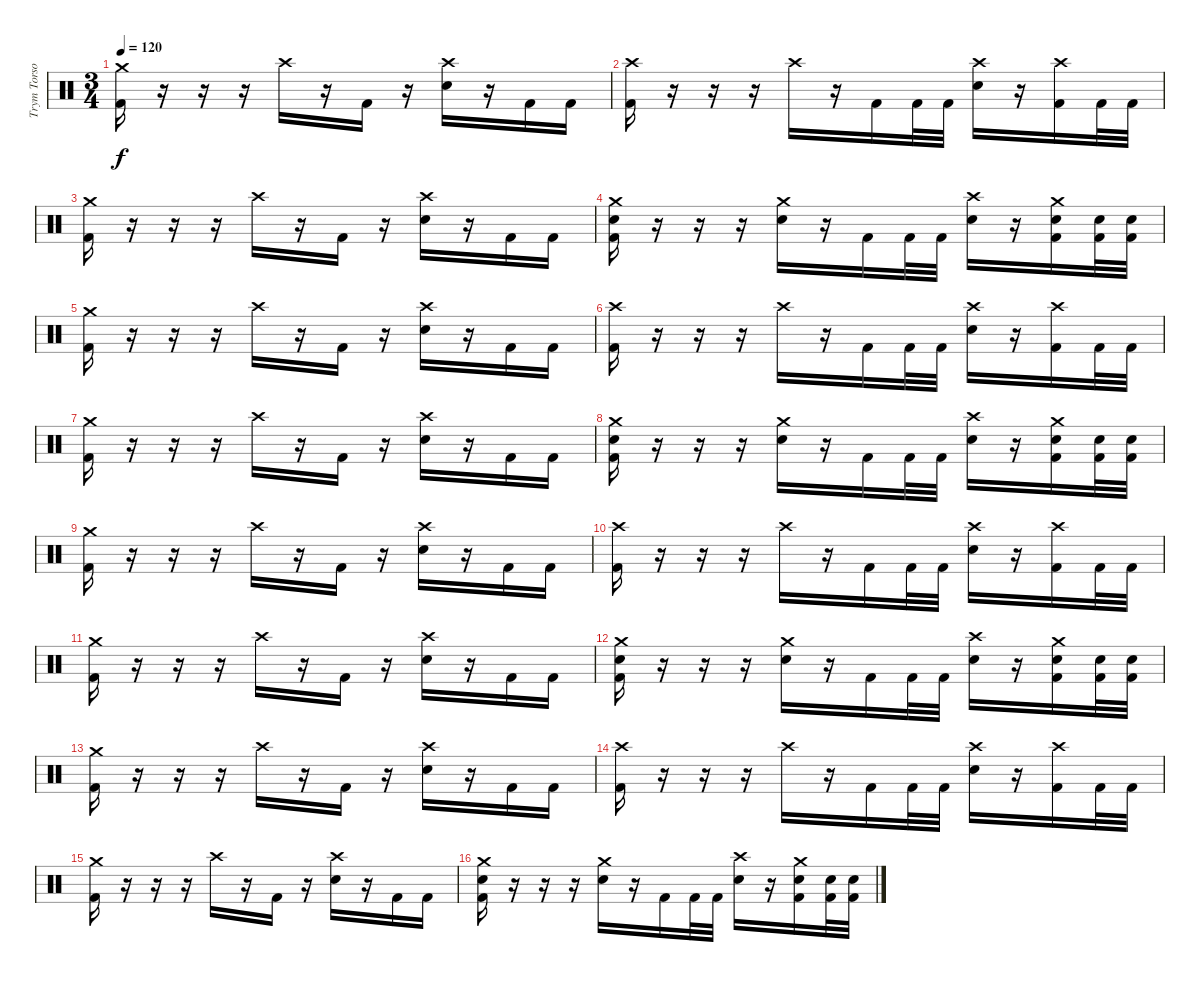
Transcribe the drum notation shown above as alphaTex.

\track ("Trym Torson" "Trym Torso") {instrument percussion}
\staff {score}
\articulation defaults
\ts (3 4)
\tempo 120
\clef neutral
\ks c
("Crash medium (hit)" "Kick (hit) 2").16{dy f} r.16 r.16 r.16 "Crash high (hit)".16 r.16 "Kick (hit) 2".16 r.16 ("Crash high (hit)" "Snare (hit) 2").16 r.16 "Kick (hit) 2".16 "Kick (hit) 2".16 |
("Crash high (hit)" "Kick (hit) 2").16 r.16 r.16 r.16 "Crash high (hit)".16 r.16 "Kick (hit) 2".16 "Kick (hit) 2".32 "Kick (hit) 2".32 ("Crash high (hit)" "Snare (hit) 2").16 r.16 ("Crash high (hit)" "Kick (hit) 2").16 "Kick (hit) 2".32 "Kick (hit) 2".32 |
("Crash medium (hit)" "Kick (hit) 2").16 r.16 r.16 r.16 "Crash high (hit)".16 r.16 "Kick (hit) 2".16 r.16 ("Crash high (hit)" "Snare (hit) 2").16 r.16 "Kick (hit) 2".16 "Kick (hit) 2".16 |
("Crash medium (hit)" "Snare (hit) 2" "Kick (hit) 2").16 r.16 r.16 r.16 ("Crash medium (hit)" "Snare (hit) 2").16 r.16 "Kick (hit) 2".16 "Kick (hit) 2".32 "Kick (hit) 2".32 ("Crash high (hit)" "Snare (hit) 2").16 r.16 ("Crash medium (hit)" "Snare (hit) 2" "Kick (hit) 2").16 ("Snare (hit) 2" "Kick (hit) 2").32 ("Snare (hit) 2" "Kick (hit) 2").32 |
("Crash medium (hit)" "Kick (hit) 2").16 r.16 r.16 r.16 "Crash high (hit)".16 r.16 "Kick (hit) 2".16 r.16 ("Crash high (hit)" "Snare (hit) 2").16 r.16 "Kick (hit) 2".16 "Kick (hit) 2".16 |
("Crash high (hit)" "Kick (hit) 2").16 r.16 r.16 r.16 "Crash high (hit)".16 r.16 "Kick (hit) 2".16 "Kick (hit) 2".32 "Kick (hit) 2".32 ("Crash high (hit)" "Snare (hit) 2").16 r.16 ("Crash high (hit)" "Kick (hit) 2").16 "Kick (hit) 2".32 "Kick (hit) 2".32 |
("Crash medium (hit)" "Kick (hit) 2").16 r.16 r.16 r.16 "Crash high (hit)".16 r.16 "Kick (hit) 2".16 r.16 ("Crash high (hit)" "Snare (hit) 2").16 r.16 "Kick (hit) 2".16 "Kick (hit) 2".16 |
("Crash medium (hit)" "Snare (hit) 2" "Kick (hit) 2").16 r.16 r.16 r.16 ("Crash medium (hit)" "Snare (hit) 2").16 r.16 "Kick (hit) 2".16 "Kick (hit) 2".32 "Kick (hit) 2".32 ("Crash high (hit)" "Snare (hit) 2").16 r.16 ("Crash medium (hit)" "Snare (hit) 2" "Kick (hit) 2").16 ("Snare (hit) 2" "Kick (hit) 2").32 ("Snare (hit) 2" "Kick (hit) 2").32 |
("Crash medium (hit)" "Kick (hit) 2").16 r.16 r.16 r.16 "Crash high (hit)".16 r.16 "Kick (hit) 2".16 r.16 ("Crash high (hit)" "Snare (hit) 2").16 r.16 "Kick (hit) 2".16 "Kick (hit) 2".16 |
("Crash high (hit)" "Kick (hit) 2").16 r.16 r.16 r.16 "Crash high (hit)".16 r.16 "Kick (hit) 2".16 "Kick (hit) 2".32 "Kick (hit) 2".32 ("Crash high (hit)" "Snare (hit) 2").16 r.16 ("Crash high (hit)" "Kick (hit) 2").16 "Kick (hit) 2".32 "Kick (hit) 2".32 |
("Crash medium (hit)" "Kick (hit) 2").16 r.16 r.16 r.16 "Crash high (hit)".16 r.16 "Kick (hit) 2".16 r.16 ("Crash high (hit)" "Snare (hit) 2").16 r.16 "Kick (hit) 2".16 "Kick (hit) 2".16 |
("Crash medium (hit)" "Snare (hit) 2" "Kick (hit) 2").16 r.16 r.16 r.16 ("Crash medium (hit)" "Snare (hit) 2").16 r.16 "Kick (hit) 2".16 "Kick (hit) 2".32 "Kick (hit) 2".32 ("Crash high (hit)" "Snare (hit) 2").16 r.16 ("Crash medium (hit)" "Snare (hit) 2" "Kick (hit) 2").16 ("Snare (hit) 2" "Kick (hit) 2").32 ("Snare (hit) 2" "Kick (hit) 2").32 |
("Crash medium (hit)" "Kick (hit) 2").16 r.16 r.16 r.16 "Crash high (hit)".16 r.16 "Kick (hit) 2".16 r.16 ("Crash high (hit)" "Snare (hit) 2").16 r.16 "Kick (hit) 2".16 "Kick (hit) 2".16 |
("Crash high (hit)" "Kick (hit) 2").16 r.16 r.16 r.16 "Crash high (hit)".16 r.16 "Kick (hit) 2".16 "Kick (hit) 2".32 "Kick (hit) 2".32 ("Crash high (hit)" "Snare (hit) 2").16 r.16 ("Crash high (hit)" "Kick (hit) 2").16 "Kick (hit) 2".32 "Kick (hit) 2".32 |
("Crash medium (hit)" "Kick (hit) 2").16 r.16 r.16 r.16 "Crash high (hit)".16 r.16 "Kick (hit) 2".16 r.16 ("Crash high (hit)" "Snare (hit) 2").16 r.16 "Kick (hit) 2".16 "Kick (hit) 2".16 |
("Crash medium (hit)" "Snare (hit) 2" "Kick (hit) 2").16 r.16 r.16 r.16 ("Crash medium (hit)" "Snare (hit) 2").16 r.16 "Kick (hit) 2".16 "Kick (hit) 2".32 "Kick (hit) 2".32 ("Crash high (hit)" "Snare (hit) 2").16 r.16 ("Crash medium (hit)" "Snare (hit) 2" "Kick (hit) 2").16 ("Snare (hit) 2" "Kick (hit) 2").32 ("Snare (hit) 2" "Kick (hit) 2").32
